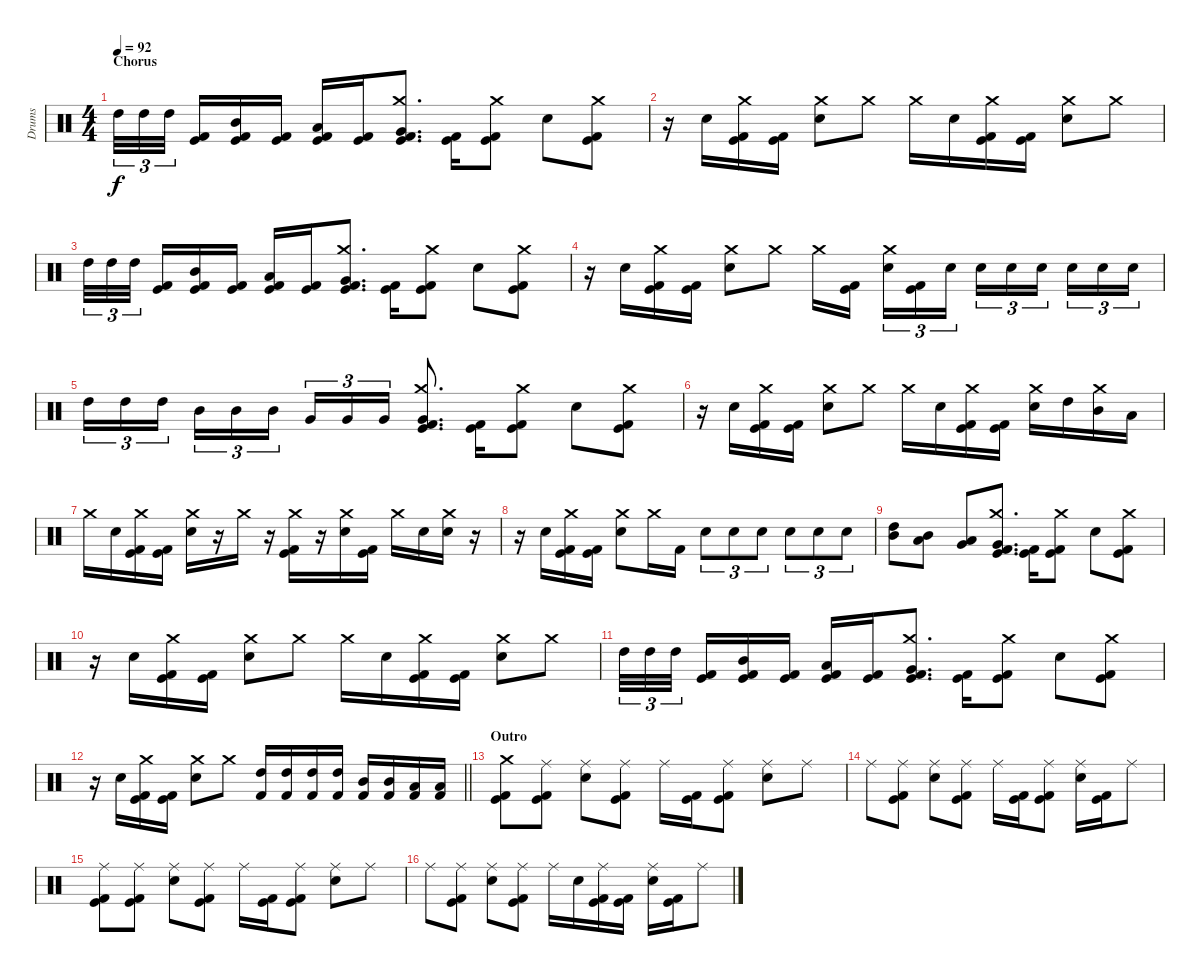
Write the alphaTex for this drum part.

\track ("Drums" "Drums") {instrument percussion}
\staff {score}
\articulation defaults
\ts (4 4)
\section ("" "Chorus")
\tempo 92
\clef neutral
\ks c "High Tom (hit)".32{tu (3 2) dy f} "High Tom (hit)".32{tu (3 2)} "High Tom (hit)".32{tu (3 2) beam splitsecondary}
("Kick (hit)" "Kick (hit) 2").16 ("Mid Tom (hit)" "Kick (hit)" "Kick (hit) 2").16 ("Kick (hit)" "Kick (hit) 2").16 ("Low Tom (hit)" "Kick (hit)" "Kick (hit) 2").16 ("Kick (hit)" "Kick (hit) 2").16 ("Crash medium (hit)" "Very Low Tom (hit)" "Kick (hit)" "Kick (hit) 2").8{d} ("Kick (hit)" "Kick (hit) 2").16 ("Crash medium (hit)" "Kick (hit)" "Kick (hit) 2").8 "Electric Snare (hit)".8 ("Crash medium (hit)" "Kick (hit)" "Kick (hit) 2").8 |
r.16 "Electric Snare (hit)".16 ("Crash medium (hit)" "Kick (hit)" "Kick (hit) 2").16 ("Kick (hit)" "Kick (hit) 2").16 ("Crash medium (hit)" "Electric Snare (hit)").8 "Crash medium (hit)".8 "Crash medium (hit)".16 "Electric Snare (hit)".16 ("Crash medium (hit)" "Kick (hit)" "Kick (hit) 2").16 ("Kick (hit)" "Kick (hit) 2").16 ("Crash medium (hit)" "Electric Snare (hit)").8 "Crash medium (hit)".8 |
"High Tom (hit)".32{tu (3 2)} "High Tom (hit)".32{tu (3 2)} "High Tom (hit)".32{tu (3 2) beam splitsecondary} ("Kick (hit)" "Kick (hit) 2").16 ("Mid Tom (hit)" "Kick (hit)" "Kick (hit) 2").16 ("Kick (hit)" "Kick (hit) 2").16 ("Low Tom (hit)" "Kick (hit)" "Kick (hit) 2").16 ("Kick (hit)" "Kick (hit) 2").16 ("Crash medium (hit)" "Very Low Tom (hit)" "Kick (hit)" "Kick (hit) 2").8{d} ("Kick (hit)" "Kick (hit) 2").16 ("Crash medium (hit)" "Kick (hit)" "Kick (hit) 2").8 "Electric Snare (hit)".8 ("Crash medium (hit)" "Kick (hit)" "Kick (hit) 2").8 |
r.16 "Electric Snare (hit)".16 ("Crash medium (hit)" "Kick (hit)" "Kick (hit) 2").16 ("Kick (hit)" "Kick (hit) 2").16 ("Crash medium (hit)" "Electric Snare (hit)").8 "Crash medium (hit)".8 "Crash medium (hit)".16 ("Kick (hit)" "Kick (hit) 2").16{beam splitsecondary} ("Crash medium (hit)" "Electric Snare (hit)").16{tu (3 2)} ("Kick (hit)" "Kick (hit) 2").16{tu (3 2)} "Electric Snare (hit)".16{tu (3 2)} "Electric Snare (hit)".16{tu (3 2)} "Electric Snare (hit)".16{tu (3 2)} "Electric Snare (hit)".16{tu (3 2) beam splitsecondary} "Electric Snare (hit)".16{tu (3 2)} "Electric Snare (hit)".16{tu (3 2)} "Electric Snare (hit)".16{tu (3 2)} |
"High Tom (hit)".16{tu (3 2)} "High Tom (hit)".16{tu (3 2)} "High Tom (hit)".16{tu (3 2) beam splitsecondary} "Mid Tom (hit)".16{tu (3 2)} "Mid Tom (hit)".16{tu (3 2)} "Mid Tom (hit)".16{tu (3 2)} "Very Low Tom (hit)".16{tu (3 2)} "Very Low Tom (hit)".16{tu (3 2)} "Very Low Tom (hit)".16{tu (3 2)} ("Crash medium (hit)" "Very Low Tom (hit)" "Kick (hit)" "Kick (hit) 2").8{d} ("Kick (hit)" "Kick (hit) 2").16 ("Crash medium (hit)" "Kick (hit)" "Kick (hit) 2").8 "Electric Snare (hit)".8 ("Crash medium (hit)" "Kick (hit)" "Kick (hit) 2").8 |
r.16 "Electric Snare (hit)".16 ("Crash medium (hit)" "Kick (hit)" "Kick (hit) 2").16 ("Kick (hit)" "Kick (hit) 2").16 ("Crash medium (hit)" "Electric Snare (hit)").8 "Crash medium (hit)".8 "Crash medium (hit)".16 "Electric Snare (hit)".16 ("Crash medium (hit)" "Kick (hit)" "Kick (hit) 2").16 ("Kick (hit)" "Kick (hit) 2").16 ("Crash medium (hit)" "Electric Snare (hit)").16 "High Tom (hit)".16 ("Crash medium (hit)" "Mid Tom (hit)").16 "Low Tom (hit)".16 |
"Crash medium (hit)".16 "Electric Snare (hit)".16 ("Crash medium (hit)" "Kick (hit)" "Kick (hit) 2").16 ("Kick (hit)" "Kick (hit) 2").16 ("Crash medium (hit)" "Electric Snare (hit)").16 r.16 "Crash medium (hit)".16 r.16 ("Crash medium (hit)" "Kick (hit)" "Kick (hit) 2").16 r.16 ("Crash medium (hit)" "Electric Snare (hit)").16 ("Kick (hit)" "Kick (hit) 2").16 "Crash medium (hit)".16 "Electric Snare (hit)".16 ("Crash medium (hit)" "Electric Snare (hit)").16 r.16 |
r.16 "Electric Snare (hit)".16 ("Crash medium (hit)" "Kick (hit)" "Kick (hit) 2").16 ("Kick (hit)" "Kick (hit) 2").16 ("Crash medium (hit)" "Electric Snare (hit)").8 "Crash medium (hit)".16 "Kick (hit) 2".16 "Electric Snare (hit)".8{tu (3 2)} "Electric Snare (hit)".8{tu (3 2)} "Electric Snare (hit)".8{tu (3 2)} "Electric Snare (hit)".8{tu (3 2)} "Electric Snare (hit)".8{tu (3 2)} "Electric Snare (hit)".8{tu (3 2)} |
("High Tom (hit)" "Mid Tom (hit)").8 ("Mid Tom (hit)" "Low Tom (hit)").8 ("Low Tom (hit)" "Very Low Tom (hit)").8 ("Crash medium (hit)" "Very Low Tom (hit)" "Kick (hit)" "Kick (hit) 2").8{d} ("Kick (hit)" "Kick (hit) 2").16 ("Crash medium (hit)" "Kick (hit)" "Kick (hit) 2").8 "Electric Snare (hit)".8 ("Crash medium (hit)" "Kick (hit)" "Kick (hit) 2").8 |
r.16 "Electric Snare (hit)".16 ("Crash medium (hit)" "Kick (hit)" "Kick (hit) 2").16 ("Kick (hit)" "Kick (hit) 2").16 ("Crash medium (hit)" "Electric Snare (hit)").8 "Crash medium (hit)".8 "Crash medium (hit)".16 "Electric Snare (hit)".16 ("Crash medium (hit)" "Kick (hit)" "Kick (hit) 2").16 ("Kick (hit)" "Kick (hit) 2").16 ("Crash medium (hit)" "Electric Snare (hit)").8 "Crash medium (hit)".8 |
"High Tom (hit)".32{tu (3 2)} "High Tom (hit)".32{tu (3 2)} "High Tom (hit)".32{tu (3 2) beam splitsecondary} ("Kick (hit)" "Kick (hit) 2").16 ("Mid Tom (hit)" "Kick (hit)" "Kick (hit) 2").16 ("Kick (hit)" "Kick (hit) 2").16 ("Low Tom (hit)" "Kick (hit)" "Kick (hit) 2").16 ("Kick (hit)" "Kick (hit) 2").16 ("Crash medium (hit)" "Very Low Tom (hit)" "Kick (hit)" "Kick (hit) 2").8{d} ("Kick (hit)" "Kick (hit) 2").16 ("Crash medium (hit)" "Kick (hit)" "Kick (hit) 2").8 "Electric Snare (hit)".8 ("Crash medium (hit)" "Kick (hit)" "Kick (hit) 2").8 |
\barLineRight lightlight
r.16 "Electric Snare (hit)".16 ("Crash medium (hit)" "Kick (hit)" "Kick (hit) 2").16 ("Kick (hit)" "Kick (hit) 2").16 ("Crash medium (hit)" "Electric Snare (hit)").8 "Crash medium (hit)".8 ("High Tom (hit)" "Kick (hit) 2").16 ("High Tom (hit)" "Kick (hit) 2").16 ("High Tom (hit)" "Kick (hit) 2").16 ("High Tom (hit)" "Kick (hit) 2").16 ("Mid Tom (hit)" "Kick (hit) 2").16 ("Mid Tom (hit)" "Kick (hit) 2").16 ("Low Tom (hit)" "Kick (hit) 2").16 ("Low Tom (hit)" "Kick (hit) 2").16 |
\section ("" "Outro")
("Crash medium (hit)" "Kick (hit)" "Kick (hit) 2").8 ("Ride (middle)" "Kick (hit)" "Kick (hit) 2").8 ("Ride (middle)" "Electric Snare (hit)").8 ("Ride (middle)" "Kick (hit)" "Kick (hit) 2").8 "Ride (middle)".16 ("Kick (hit)" "Kick (hit) 2").16 ("Ride (middle)" "Kick (hit)" "Kick (hit) 2").8 ("Ride (middle)" "Electric Snare (hit)").8 "Ride (middle)".8 |
"Ride (middle)".8 ("Ride (middle)" "Kick (hit)" "Kick (hit) 2").8 ("Ride (middle)" "Electric Snare (hit)").8 ("Ride (middle)" "Kick (hit)" "Kick (hit) 2").8 "Ride (middle)".16 ("Kick (hit)" "Kick (hit) 2").16 ("Ride (middle)" "Kick (hit)" "Kick (hit) 2").8 ("Ride (middle)" "Electric Snare (hit)").16 ("Kick (hit)" "Kick (hit) 2").16 "Ride (middle)".8 |
("Ride (middle)" "Kick (hit)" "Kick (hit) 2").8 ("Ride (middle)" "Kick (hit)" "Kick (hit) 2").8 ("Ride (middle)" "Electric Snare (hit)").8 ("Ride (middle)" "Kick (hit)" "Kick (hit) 2").8 "Ride (middle)".16 ("Kick (hit)" "Kick (hit) 2").16 ("Ride (middle)" "Kick (hit)" "Kick (hit) 2").8 ("Ride (middle)" "Electric Snare (hit)").8 "Ride (middle)".8 |
"Ride (middle)".8 ("Ride (middle)" "Kick (hit)" "Kick (hit) 2").8 ("Ride (middle)" "Electric Snare (hit)").8 ("Ride (middle)" "Kick (hit)" "Kick (hit) 2").8 "Ride (middle)".16 "Electric Snare (hit)".16 ("Ride (middle)" "Kick (hit)" "Kick (hit) 2").16 ("Kick (hit)" "Kick (hit) 2").16 ("Ride (middle)" "Electric Snare (hit)").16 ("Kick (hit)" "Kick (hit) 2").16 "Ride (middle)".8
